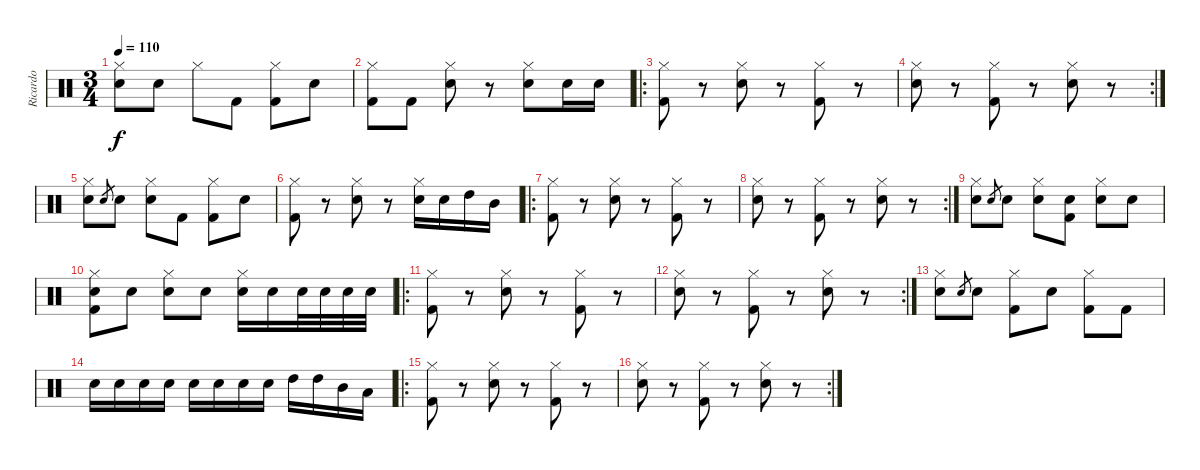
\track ("Ricardo" "Ricardo") {instrument percussion}
\staff {score}
\articulation defaults
\ts (3 4)
\tempo 110
\clef neutral
\ks c
("Hi-Hat (closed)" "Snare (hit) 2").8{dy f} "Snare (hit) 2".8 "Hi-Hat (closed)".8 "Kick (hit) 2".8 ("Hi-Hat (closed)" "Kick (hit) 2").8 "Snare (hit) 2".8 |
("Hi-Hat (closed)" "Kick (hit) 2").8 "Kick (hit) 2".8 ("Hi-Hat (closed)" "Snare (hit) 2").8 r.8 ("Hi-Hat (closed)" "Snare (hit) 2").8 "Snare (hit) 2".16 "Snare (hit) 2".16 |
\ro
("Hi-Hat (closed)" "Kick (hit) 2").8 r.8 ("Hi-Hat (closed)" "Snare (hit) 2").8 r.8 ("Hi-Hat (closed)" "Kick (hit) 2").8 r.8 |
\rc 2
("Hi-Hat (closed)" "Snare (hit) 2").8 r.8 ("Hi-Hat (closed)" "Kick (hit) 2").8 r.8 ("Hi-Hat (closed)" "Snare (hit) 2").8 r.8 |
("Hi-Hat (closed)" "Snare (hit) 2").8 "Snare (hit) 2".8{gr} "Snare (hit) 2".8 ("Hi-Hat (closed)" "Snare (hit) 2").8 "Kick (hit) 2".8 ("Hi-Hat (closed)" "Kick (hit) 2").8 "Snare (hit) 2".8 |
("Hi-Hat (closed)" "Kick (hit) 2").8 r.8 ("Hi-Hat (closed)" "Snare (hit) 2").8 r.8 ("Hi-Hat (closed)" "Snare (hit) 2").16 "Snare (hit) 2".16 "High Tom (hit)".16 "Mid Tom (hit)".16 |
\ro
("Hi-Hat (closed)" "Kick (hit) 2").8 r.8 ("Hi-Hat (closed)" "Snare (hit) 2").8 r.8 ("Hi-Hat (closed)" "Kick (hit) 2").8 r.8 |
\rc 2
("Hi-Hat (closed)" "Snare (hit) 2").8 r.8 ("Hi-Hat (closed)" "Kick (hit) 2").8 r.8 ("Hi-Hat (closed)" "Snare (hit) 2").8 r.8 |
("Hi-Hat (closed)" "Snare (hit) 2").8 "Snare (hit) 2".8{gr} "Snare (hit) 2".8 ("Hi-Hat (closed)" "Snare (hit) 2").8 ("Kick (hit) 2" "Snare (hit) 2").8 ("Hi-Hat (closed)" "Snare (hit) 2").8 "Snare (hit) 2".8 |
("Hi-Hat (closed)" "Kick (hit) 2" "Snare (hit) 2").8 "Snare (hit) 2".8 ("Hi-Hat (closed)" "Snare (hit) 2").8 "Snare (hit) 2".8 ("Hi-Hat (closed)" "Snare (hit) 2").16 "Snare (hit) 2".16 "Snare (hit) 2".32 "Snare (hit) 2".32 "Snare (hit) 2".32 "Snare (hit) 2".32 |
\ro
("Hi-Hat (closed)" "Kick (hit) 2").8 r.8 ("Hi-Hat (closed)" "Snare (hit) 2").8 r.8 ("Hi-Hat (closed)" "Kick (hit) 2").8 r.8 |
\rc 2
("Hi-Hat (closed)" "Snare (hit) 2").8 r.8 ("Hi-Hat (closed)" "Kick (hit) 2").8 r.8 ("Hi-Hat (closed)" "Snare (hit) 2").8 r.8 |
("Hi-Hat (closed)" "Snare (hit) 2").8 "Snare (hit) 2".8{gr} "Snare (hit) 2".8 ("Hi-Hat (closed)" "Kick (hit) 2").8 "Snare (hit) 2".8 ("Hi-Hat (closed)" "Kick (hit) 2").8 "Kick (hit) 2".8 |
"Snare (hit) 2".16 "Snare (hit) 2".16 "Snare (hit) 2".16 "Snare (hit) 2".16 "Snare (hit) 2".16 "Snare (hit) 2".16 "Snare (hit) 2".16 "Snare (hit) 2".16 "High Tom (hit)".16 "High Tom (hit)".16 "Mid Tom (hit)".16 "Low Tom (hit)".16 |
\ro
("Hi-Hat (closed)" "Kick (hit) 2").8 r.8 ("Hi-Hat (closed)" "Snare (hit) 2").8 r.8 ("Hi-Hat (closed)" "Kick (hit) 2").8 r.8 |
\rc 2
("Hi-Hat (closed)" "Snare (hit) 2").8 r.8 ("Hi-Hat (closed)" "Kick (hit) 2").8 r.8 ("Hi-Hat (closed)" "Snare (hit) 2").8 r.8
